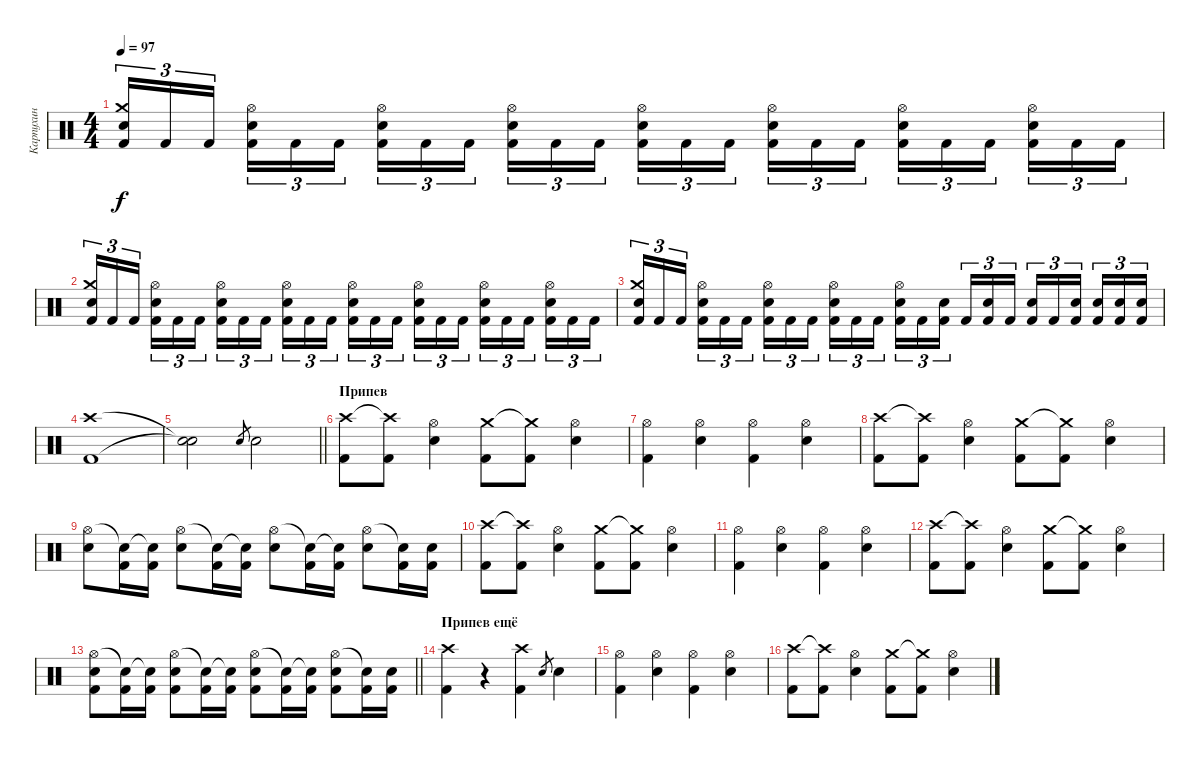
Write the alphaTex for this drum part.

\track ("Карпухин" "Карпухин") {instrument percussion}
\staff {score}
\articulation defaults
\ts (4 4)
\tempo 97
\clef neutral
\ks c
("Snare (hit) 2" "Crash medium (hit)" "Kick (hit) 2").16{tu (3 2) dy f} "Kick (hit) 2".16{tu (3 2)} "Kick (hit) 2".16{tu (3 2) beam splitsecondary} ("Snare (hit) 2" "Hi-Hat (open)" "Kick (hit) 2").16{tu (3 2)} "Kick (hit) 2".16{tu (3 2)} "Kick (hit) 2".16{tu (3 2)} ("Snare (hit) 2" "Hi-Hat (open)" "Kick (hit) 2").16{tu (3 2)} "Kick (hit) 2".16{tu (3 2)} "Kick (hit) 2".16{tu (3 2) beam splitsecondary} ("Snare (hit) 2" "Hi-Hat (open)" "Kick (hit) 2").16{tu (3 2)} "Kick (hit) 2".16{tu (3 2)} "Kick (hit) 2".16{tu (3 2)} ("Snare (hit) 2" "Hi-Hat (open)" "Kick (hit) 2").16{tu (3 2)} "Kick (hit) 2".16{tu (3 2)} "Kick (hit) 2".16{tu (3 2) beam splitsecondary} ("Snare (hit) 2" "Hi-Hat (open)" "Kick (hit) 2").16{tu (3 2)} "Kick (hit) 2".16{tu (3 2)} "Kick (hit) 2".16{tu (3 2)} ("Snare (hit) 2" "Hi-Hat (open)" "Kick (hit) 2").16{tu (3 2)} "Kick (hit) 2".16{tu (3 2)} "Kick (hit) 2".16{tu (3 2) beam splitsecondary} ("Snare (hit) 2" "Hi-Hat (open)" "Kick (hit) 2").16{tu (3 2)} "Kick (hit) 2".16{tu (3 2)} "Kick (hit) 2".16{tu (3 2)} |
("Snare (hit) 2" "Crash medium (hit)" "Kick (hit) 2").16{tu (3 2)} "Kick (hit) 2".16{tu (3 2)} "Kick (hit) 2".16{tu (3 2) beam splitsecondary} ("Snare (hit) 2" "Hi-Hat (open)" "Kick (hit) 2").16{tu (3 2)} "Kick (hit) 2".16{tu (3 2)} "Kick (hit) 2".16{tu (3 2)} ("Snare (hit) 2" "Hi-Hat (open)" "Kick (hit) 2").16{tu (3 2)} "Kick (hit) 2".16{tu (3 2)} "Kick (hit) 2".16{tu (3 2) beam splitsecondary} ("Snare (hit) 2" "Hi-Hat (open)" "Kick (hit) 2").16{tu (3 2)} "Kick (hit) 2".16{tu (3 2)} "Kick (hit) 2".16{tu (3 2)} ("Snare (hit) 2" "Hi-Hat (open)" "Kick (hit) 2").16{tu (3 2)} "Kick (hit) 2".16{tu (3 2)} "Kick (hit) 2".16{tu (3 2) beam splitsecondary} ("Snare (hit) 2" "Hi-Hat (open)" "Kick (hit) 2").16{tu (3 2)} "Kick (hit) 2".16{tu (3 2)} "Kick (hit) 2".16{tu (3 2)} ("Snare (hit) 2" "Hi-Hat (open)" "Kick (hit) 2").16{tu (3 2)} "Kick (hit) 2".16{tu (3 2)} "Kick (hit) 2".16{tu (3 2) beam splitsecondary} ("Snare (hit) 2" "Hi-Hat (open)" "Kick (hit) 2").16{tu (3 2)} "Kick (hit) 2".16{tu (3 2)} "Kick (hit) 2".16{tu (3 2)} |
("Snare (hit) 2" "Crash medium (hit)" "Kick (hit) 2").16{tu (3 2)} "Kick (hit) 2".16{tu (3 2)} "Kick (hit) 2".16{tu (3 2) beam splitsecondary} ("Snare (hit) 2" "Hi-Hat (open)" "Kick (hit) 2").16{tu (3 2)} "Kick (hit) 2".16{tu (3 2)} "Kick (hit) 2".16{tu (3 2)} ("Snare (hit) 2" "Hi-Hat (open)" "Kick (hit) 2").16{tu (3 2)} "Kick (hit) 2".16{tu (3 2)} "Kick (hit) 2".16{tu (3 2) beam splitsecondary} ("Snare (hit) 2" "Hi-Hat (open)" "Kick (hit) 2").16{tu (3 2)} "Kick (hit) 2".16{tu (3 2)} "Kick (hit) 2".16{tu (3 2)} ("Snare (hit) 2" "Hi-Hat (open)" "Kick (hit) 2").16{tu (3 2)} "Kick (hit) 2".16{tu (3 2)} ("Snare (hit) 2" "Kick (hit) 2").16{tu (3 2) beam splitsecondary} "Kick (hit) 2".16{tu (3 2)} ("Snare (hit) 2" "Kick (hit) 2").16{tu (3 2)} "Kick (hit) 2".16{tu (3 2)} ("Snare (hit) 2" "Kick (hit) 2").16{tu (3 2)} "Kick (hit) 2".16{tu (3 2)} ("Snare (hit) 2" "Kick (hit) 2").16{tu (3 2) beam splitsecondary} ("Snare (hit) 2" "Kick (hit) 2").16{tu (3 2)} ("Snare (hit) 2" "Kick (hit) 2").16{tu (3 2)} ("Snare (hit) 2" "Kick (hit) 2").16{tu (3 2)} |
("Crash high (hit)" "Kick (hit) 2").1 |
\barLineRight lightlight
("Snare (hit)"{t} "Snare (hit)"{t}).2 "Snare (hit) 2".8{gr} "Electric Snare (hit)".2 |
\section ("" "Припев")
("Crash high (hit)" "Kick (hit) 2").8 ("Crash high (hit)"{t} "Kick (hit) 2").8 ("Hi-Hat (open)" "Electric Snare (hit)").4 ("Crash medium (hit)" "Kick (hit) 2").8 ("Crash medium (hit)"{t} "Kick (hit) 2").8 ("Hi-Hat (open)" "Electric Snare (hit)").4 |
("Kick (hit) 2" "Hi-Hat (open)").4 ("Electric Snare (hit)" "Hi-Hat (open)").4 ("Kick (hit) 2" "Hi-Hat (open)").4 ("Electric Snare (hit)" "Hi-Hat (open)").4 |
("Crash high (hit)" "Kick (hit) 2").8 ("Crash high (hit)"{t} "Kick (hit) 2").8 ("Hi-Hat (open)" "Electric Snare (hit)").4 ("Crash medium (hit)" "Kick (hit) 2").8 ("Crash medium (hit)"{t} "Kick (hit) 2").8 ("Hi-Hat (open)" "Electric Snare (hit)").4 |
("Electric Snare (hit)" "Hi-Hat (open)").8 ("Kick (hit) 2" "Snare (hit)"{t}).16 ("Kick (hit) 2" "Snare (hit)"{t}).16 ("Electric Snare (hit)" "Hi-Hat (open)").8 ("Kick (hit) 2" "Snare (hit)"{t}).16 ("Kick (hit) 2" "Snare (hit)"{t}).16 ("Electric Snare (hit)" "Hi-Hat (open)").8 ("Kick (hit) 2" "Snare (hit)"{t}).16 ("Kick (hit) 2" "Snare (hit)"{t}).16 ("Electric Snare (hit)" "Hi-Hat (open)").8 ("Kick (hit) 2" "Snare (hit) 2"{t}).16 ("Kick (hit) 2" "Snare (hit) 2").16 |
("Crash high (hit)" "Kick (hit) 2").8 ("Crash high (hit)"{t} "Kick (hit) 2").8 ("Hi-Hat (open)" "Electric Snare (hit)").4 ("Crash medium (hit)" "Kick (hit) 2").8 ("Crash medium (hit)"{t} "Kick (hit) 2").8 ("Hi-Hat (open)" "Electric Snare (hit)").4 |
("Kick (hit) 2" "Hi-Hat (open)").4 ("Electric Snare (hit)" "Hi-Hat (open)").4 ("Kick (hit) 2" "Hi-Hat (open)").4 ("Electric Snare (hit)" "Hi-Hat (open)").4 |
("Crash high (hit)" "Kick (hit) 2").8 ("Crash high (hit)"{t} "Kick (hit) 2").8 ("Hi-Hat (open)" "Electric Snare (hit)").4 ("Crash medium (hit)" "Kick (hit) 2").8 ("Crash medium (hit)"{t} "Kick (hit) 2").8 ("Hi-Hat (open)" "Electric Snare (hit)").4 |
\barLineRight lightlight
("Snare (hit) 2" "Hi-Hat (open)" "Kick (hit) 2").8 ("Kick (hit) 2" "Snare (hit)"{t}).16 ("Kick (hit) 2" "Snare (hit)"{t}).16 ("Snare (hit) 2" "Hi-Hat (open)" "Kick (hit) 2").8 ("Kick (hit) 2" "Snare (hit)"{t}).16 ("Kick (hit) 2" "Snare (hit)"{t}).16 ("Snare (hit) 2" "Hi-Hat (open)" "Kick (hit) 2").8 ("Kick (hit) 2" "Snare (hit)"{t}).16 ("Kick (hit) 2" "Snare (hit)"{t}).16 ("Snare (hit) 2" "Hi-Hat (open)" "Kick (hit) 2").8 ("Kick (hit) 2" "Snare (hit) 2"{t}).16 ("Kick (hit) 2" "Snare (hit) 2").16 |
\section ("" "Припев ещё")
("Crash high (hit)" "Kick (hit) 2").4 r.4 ("Crash high (hit)" "Kick (hit) 2").4 "Snare (hit) 2".8{gr} "Electric Snare (hit)".4 |
("Kick (hit) 2" "Hi-Hat (open)").4 ("Electric Snare (hit)" "Hi-Hat (open)").4 ("Kick (hit) 2" "Hi-Hat (open)").4 ("Electric Snare (hit)" "Hi-Hat (open)").4 |
("Crash high (hit)" "Kick (hit) 2").8 ("Crash high (hit)"{t} "Kick (hit) 2").8 ("Hi-Hat (open)" "Electric Snare (hit)").4 ("Crash medium (hit)" "Kick (hit) 2").8 ("Crash medium (hit)"{t} "Kick (hit) 2").8 ("Hi-Hat (open)" "Electric Snare (hit)").4
